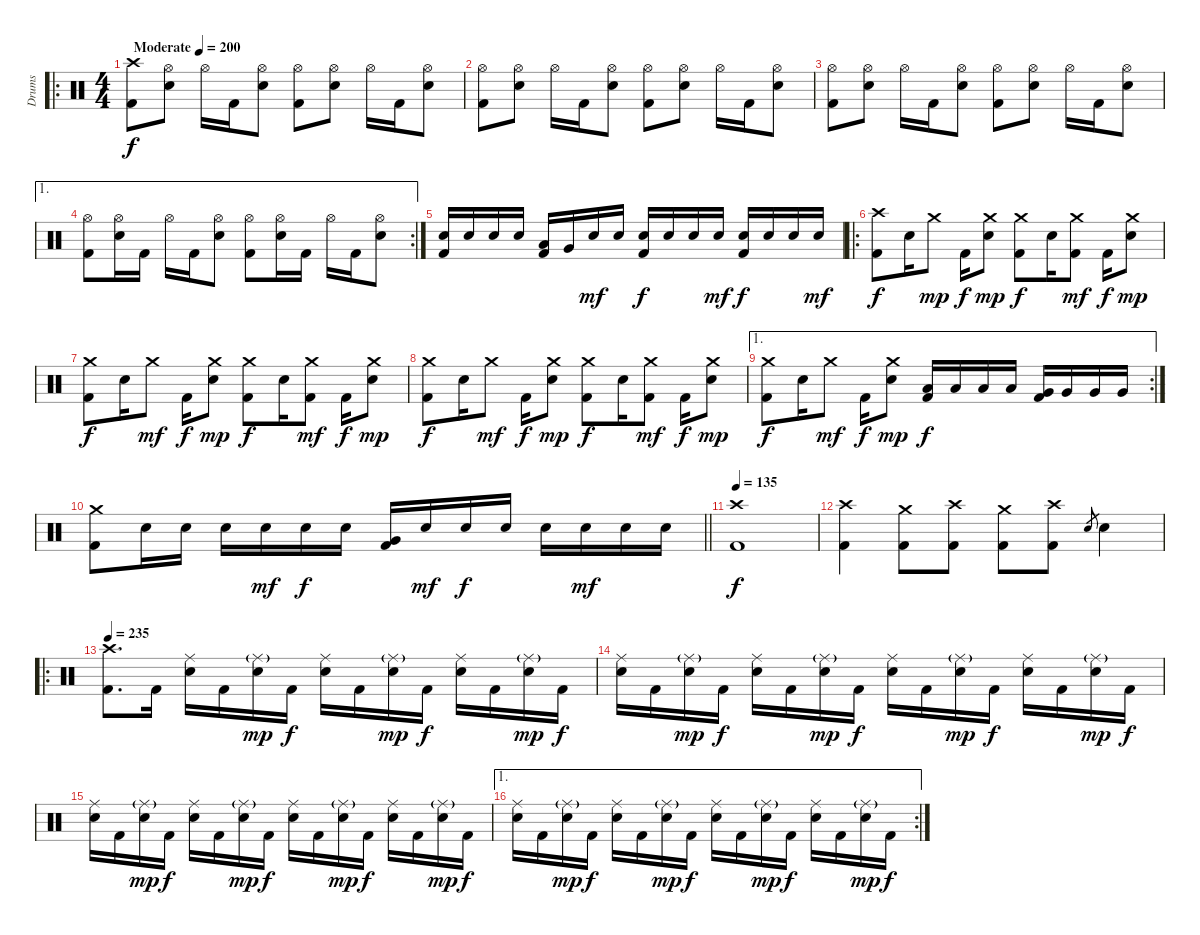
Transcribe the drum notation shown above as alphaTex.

\track ("Drums" "Drums") {instrument percussion}
\staff {score}
\articulation defaults
\ro
\ts (4 4)
\tempo (200 "Moderate")
\clef neutral
\ks c
("Crash high (hit)" "Kick (hit) 2").8{dy f} ("Hi-Hat (open)" "Electric Snare (hit)").8 "Hi-Hat (open)".16 "Kick (hit) 2".16 ("Hi-Hat (open)" "Electric Snare (hit)").8 ("Hi-Hat (open)" "Kick (hit) 2").8 ("Hi-Hat (open)" "Electric Snare (hit)").8 "Hi-Hat (open)".16 "Kick (hit) 2".16 ("Hi-Hat (open)" "Electric Snare (hit)").8 |
("Hi-Hat (open)" "Kick (hit) 2").8 ("Hi-Hat (open)" "Electric Snare (hit)").8 "Hi-Hat (open)".16 "Kick (hit) 2".16 ("Hi-Hat (open)" "Electric Snare (hit)").8 ("Hi-Hat (open)" "Kick (hit) 2").8 ("Hi-Hat (open)" "Electric Snare (hit)").8 "Hi-Hat (open)".16 "Kick (hit) 2".16 ("Hi-Hat (open)" "Electric Snare (hit)").8 |
("Hi-Hat (open)" "Kick (hit) 2").8 ("Hi-Hat (open)" "Electric Snare (hit)").8 "Hi-Hat (open)".16 "Kick (hit) 2".16 ("Hi-Hat (open)" "Electric Snare (hit)").8 ("Hi-Hat (open)" "Kick (hit) 2").8 ("Hi-Hat (open)" "Electric Snare (hit)").8 "Hi-Hat (open)".16 "Kick (hit) 2".16 ("Hi-Hat (open)" "Electric Snare (hit)").8 |
\ae 1
\rc 2
("Hi-Hat (open)" "Kick (hit) 2").8 ("Hi-Hat (open)" "Electric Snare (hit)").16 "Kick (hit) 2".16 "Hi-Hat (open)".16 "Kick (hit) 2".16 ("Hi-Hat (open)" "Electric Snare (hit)").8 ("Hi-Hat (open)" "Kick (hit) 2").8 ("Hi-Hat (open)" "Electric Snare (hit)").16 "Kick (hit) 2".16 "Hi-Hat (open)".16 "Kick (hit) 2".16 ("Hi-Hat (open)" "Electric Snare (hit)").8 |
("Electric Snare (hit)" "Kick (hit) 2").16 "Electric Snare (hit)".16 "Electric Snare (hit)".16 "Electric Snare (hit)".16 ("Low Tom (hit)" "Kick (hit) 2").16 "Very Low Tom (hit)".16 "Electric Snare (hit)".16{dy mf} "Electric Snare (hit)".16 ("Electric Snare (hit)" "Kick (hit) 2").16{dy f} "Electric Snare (hit)".16 "Electric Snare (hit)".16 "Electric Snare (hit)".16{dy mf} ("Electric Snare (hit)" "Kick (hit) 2").16{dy f} "Electric Snare (hit)".16 "Electric Snare (hit)".16 "Electric Snare (hit)".16{dy mf} |
\ro
("Crash high (hit)" "Kick (hit) 2").8{dy f} "Electric Snare (hit)".16 "Crash medium (hit)".8{dy mp} "Kick (hit) 2".16{dy f} ("Crash medium (hit)" "Electric Snare (hit)").8{dy mp} ("Crash medium (hit)" "Kick (hit) 2").8{dy f} "Electric Snare (hit)".16 ("Crash medium (hit)" "Kick (hit) 2").8{dy mf} "Kick (hit) 2".16{dy f} ("Crash medium (hit)" "Electric Snare (hit)").8{dy mp} |
("Crash medium (hit)" "Kick (hit) 2").8{dy f} "Electric Snare (hit)".16 "Crash medium (hit)".8{dy mf} "Kick (hit) 2".16{dy f} ("Crash medium (hit)" "Electric Snare (hit)").8{dy mp} ("Crash medium (hit)" "Kick (hit) 2").8{dy f} "Electric Snare (hit)".16 ("Crash medium (hit)" "Kick (hit) 2").8{dy mf} "Kick (hit) 2".16{dy f} ("Crash medium (hit)" "Electric Snare (hit)").8{dy mp} |
("Crash medium (hit)" "Kick (hit) 2").8{dy f} "Electric Snare (hit)".16 "Crash medium (hit)".8{dy mf} "Kick (hit) 2".16{dy f} ("Crash medium (hit)" "Electric Snare (hit)").8{dy mp} ("Crash medium (hit)" "Kick (hit) 2").8{dy f} "Electric Snare (hit)".16 ("Crash medium (hit)" "Kick (hit) 2").8{dy mf} "Kick (hit) 2".16{dy f} ("Crash medium (hit)" "Electric Snare (hit)").8{dy mp} |
\ae 1
\rc 2
("Crash medium (hit)" "Kick (hit) 2").8{dy f} "Electric Snare (hit)".16 "Crash medium (hit)".8{dy mf} "Kick (hit) 2".16{dy f} ("Crash medium (hit)" "Electric Snare (hit)").8{dy mp} ("Low Tom (hit)" "Kick (hit) 2").16{dy f} "Low Tom (hit)".16 "Low Tom (hit)".16 "Low Tom (hit)".16 ("Very Low Tom (hit)" "Kick (hit) 2").16 "Very Low Tom (hit)".16 "Very Low Tom (hit)".16 "Very Low Tom (hit)".16 |
\barLineRight lightlight
("Crash medium (hit)" "Kick (hit) 2").8 "Electric Snare (hit)".16 "Electric Snare (hit)".16 "Electric Snare (hit)".16 "Electric Snare (hit)".16{dy mf} "Electric Snare (hit)".16{dy f} "Electric Snare (hit)".16 ("Very Low Tom (hit)" "Kick (hit) 2").16 "Electric Snare (hit)".16{dy mf} "Electric Snare (hit)".16{dy f} "Electric Snare (hit)".16 "Electric Snare (hit)".16 "Electric Snare (hit)".16{dy mf} "Electric Snare (hit)".16 "Electric Snare (hit)".16 |
\section ("" "")
\tempo 135
("Crash high (hit)" "Kick (hit) 2").1{dy f} |
("Crash high (hit)" "Kick (hit) 2").4 ("Crash medium (hit)" "Kick (hit) 2").8 ("Crash high (hit)" "Kick (hit) 2").8 ("Crash medium (hit)" "Kick (hit) 2").8 ("Crash high (hit)" "Kick (hit) 2").8 "Electric Snare (hit)".8{gr} "Electric Snare (hit)".4 |
\ro
\tempo 235
("Crash high (hit)" "Kick (hit) 2").8{d} "Kick (hit) 2".16 ("Ride (middle)" "Electric Snare (hit)").16 "Kick (hit) 2".16 ("Ride (middle)"{g} "Electric Snare (hit)").16{dy mp} "Kick (hit) 2".16{dy f} ("Ride (middle)" "Electric Snare (hit)").16 "Kick (hit) 2".16 ("Ride (middle)"{g} "Electric Snare (hit)").16{dy mp} "Kick (hit) 2".16{dy f} ("Ride (middle)" "Electric Snare (hit)").16 "Kick (hit) 2".16 ("Ride (middle)"{g} "Electric Snare (hit)").16{dy mp} "Kick (hit) 2".16{dy f} |
("Ride (middle)" "Electric Snare (hit)").16 "Kick (hit) 2".16 ("Ride (middle)"{g} "Electric Snare (hit)").16{dy mp} "Kick (hit) 2".16{dy f} ("Ride (middle)" "Electric Snare (hit)").16 "Kick (hit) 2".16 ("Ride (middle)"{g} "Electric Snare (hit)").16{dy mp} "Kick (hit) 2".16{dy f} ("Ride (middle)" "Electric Snare (hit)").16 "Kick (hit) 2".16 ("Ride (middle)"{g} "Electric Snare (hit)").16{dy mp} "Kick (hit) 2".16{dy f} ("Ride (middle)" "Electric Snare (hit)").16 "Kick (hit) 2".16 ("Ride (middle)"{g} "Electric Snare (hit)").16{dy mp} "Kick (hit) 2".16{dy f} |
("Ride (middle)" "Electric Snare (hit)").16 "Kick (hit) 2".16 ("Ride (middle)"{g} "Electric Snare (hit)").16{dy mp} "Kick (hit) 2".16{dy f} ("Ride (middle)" "Electric Snare (hit)").16 "Kick (hit) 2".16 ("Ride (middle)"{g} "Electric Snare (hit)").16{dy mp} "Kick (hit) 2".16{dy f} ("Ride (middle)" "Electric Snare (hit)").16 "Kick (hit) 2".16 ("Ride (middle)"{g} "Electric Snare (hit)").16{dy mp} "Kick (hit) 2".16{dy f} ("Ride (middle)" "Electric Snare (hit)").16 "Kick (hit) 2".16 ("Ride (middle)"{g} "Electric Snare (hit)").16{dy mp} "Kick (hit) 2".16{dy f} |
\ae 1
\rc 2
("Ride (middle)" "Electric Snare (hit)").16 "Kick (hit) 2".16 ("Ride (middle)"{g} "Electric Snare (hit)").16{dy mp} "Kick (hit) 2".16{dy f} ("Ride (middle)" "Electric Snare (hit)").16 "Kick (hit) 2".16 ("Ride (middle)"{g} "Electric Snare (hit)").16{dy mp} "Kick (hit) 2".16{dy f} ("Ride (middle)" "Electric Snare (hit)").16 "Kick (hit) 2".16 ("Ride (middle)"{g} "Electric Snare (hit)").16{dy mp} "Kick (hit) 2".16{dy f} ("Ride (middle)" "Electric Snare (hit)").16 "Kick (hit) 2".16 ("Ride (middle)"{g} "Electric Snare (hit)").16{dy mp} "Kick (hit) 2".16{dy f}
